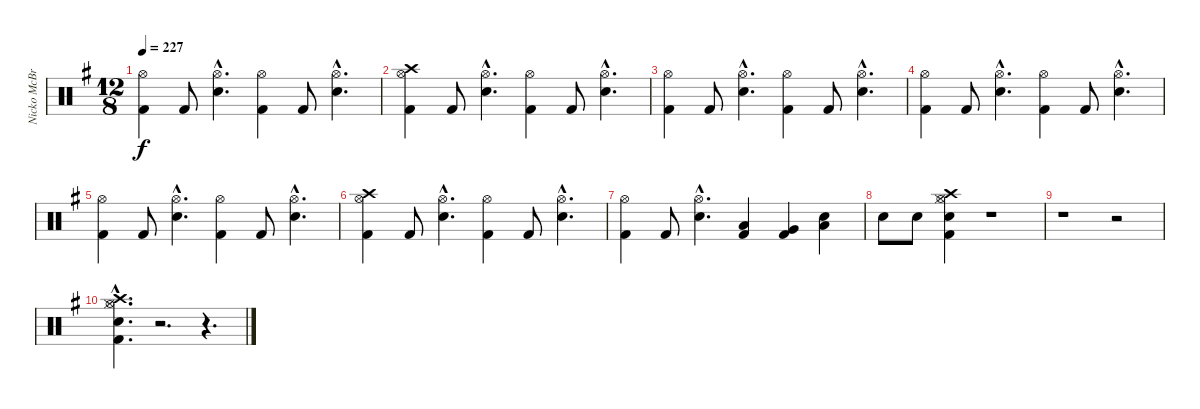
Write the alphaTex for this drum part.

\track ("Nicko McBrain" "Nicko McBr") {instrument percussion}
\staff {score}
\articulation defaults
\ts (12 8)
\tempo 227
\clef neutral
\ks g
("Kick (hit) 2" "Hi-Hat (open)").4{dy f} "Kick (hit) 2".8 ("Snare (hit) 2"{hac} "Hi-Hat (open)"{hac}).4{d} ("Kick (hit) 2" "Hi-Hat (open)").4 "Kick (hit) 2".8 ("Snare (hit) 2"{hac} "Hi-Hat (open)"{hac}).4{d} |
("Kick (hit) 2" "Hi-Hat (open)" "Crash high (hit)").4 "Kick (hit) 2".8 ("Snare (hit) 2"{hac} "Hi-Hat (open)"{hac}).4{d} ("Kick (hit) 2" "Hi-Hat (open)").4 "Kick (hit) 2".8 ("Snare (hit) 2"{hac} "Hi-Hat (open)"{hac}).4{d} |
("Kick (hit) 2" "Hi-Hat (open)").4 "Kick (hit) 2".8 ("Snare (hit) 2"{hac} "Hi-Hat (open)"{hac}).4{d} ("Kick (hit) 2" "Hi-Hat (open)").4 "Kick (hit) 2".8 ("Snare (hit) 2"{hac} "Hi-Hat (open)"{hac}).4{d} |
("Kick (hit) 2" "Hi-Hat (open)").4 "Kick (hit) 2".8 ("Snare (hit) 2"{hac} "Hi-Hat (open)"{hac}).4{d} ("Kick (hit) 2" "Hi-Hat (open)").4 "Kick (hit) 2".8 ("Snare (hit) 2"{hac} "Hi-Hat (open)"{hac}).4{d} |
("Kick (hit) 2" "Hi-Hat (open)").4 "Kick (hit) 2".8 ("Snare (hit) 2"{hac} "Hi-Hat (open)"{hac}).4{d} ("Kick (hit) 2" "Hi-Hat (open)").4 "Kick (hit) 2".8 ("Snare (hit) 2"{hac} "Hi-Hat (open)"{hac}).4{d} |
("Kick (hit) 2" "Hi-Hat (open)" "Crash high (hit)").4 "Kick (hit) 2".8 ("Snare (hit) 2"{hac} "Hi-Hat (open)"{hac}).4{d} ("Kick (hit) 2" "Hi-Hat (open)").4 "Kick (hit) 2".8 ("Snare (hit) 2"{hac} "Hi-Hat (open)"{hac}).4{d} |
("Kick (hit) 2" "Hi-Hat (open)").4 "Kick (hit) 2".8 ("Snare (hit) 2"{hac} "Hi-Hat (open)"{hac}).4{d} ("Kick (hit) 2" "Low Tom (hit)").4 ("Kick (hit) 2" "Very Low Tom (hit)").4 ("Snare (hit) 2" "Low Floor Tom (hit)").4 |
"Snare (hit) 2".8 "Snare (hit) 2".8 ("Kick (hit) 2" "Snare (hit) 2" "Hi-Hat (closed)" "Hi-Hat (open)" "Crash high (hit)").4 r.1 |
r.1 r.2 |
("Kick (hit) 2"{hac} "Snare (hit) 2"{hac} "Hi-Hat (closed)"{hac} "Hi-Hat (open)"{hac} "Crash high (hit)"{hac}).4{d} r.2{d} r.4{d}
